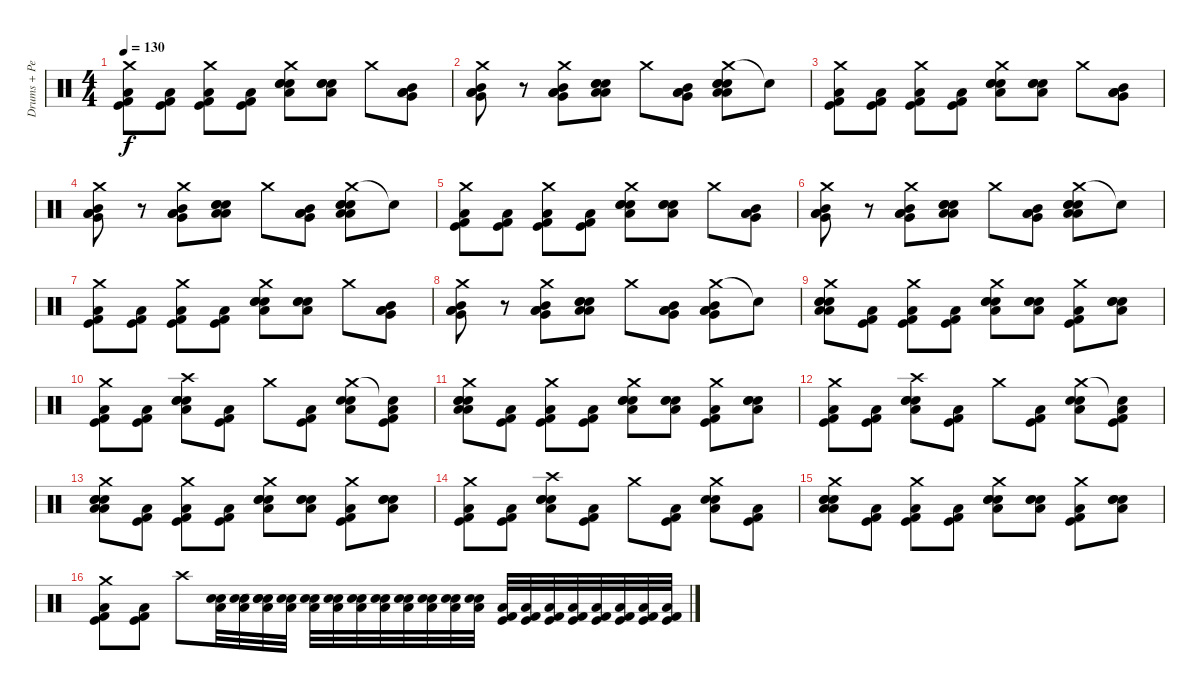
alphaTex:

\track ("Drums + Percussions (Dave Chavarri)" "Drums + Pe") {instrument percussion}
\staff {score}
\articulation defaults
\ts (4 4)
\tempo 130
\clef neutral
\ks c
("Crash medium (hit)" "Low Floor Tom (hit)" "Kick (hit)" "Kick (hit) 2").8{dy f} ("Low Floor Tom (hit)" "Kick (hit)" "Kick (hit) 2").8 ("Crash medium (hit)" "Low Floor Tom (hit)" "Kick (hit)" "Kick (hit) 2").8 ("Low Floor Tom (hit)" "Kick (hit)" "Kick (hit) 2").8 ("Crash medium (hit)" "Low Floor Tom (hit)" "Electric Snare (hit)" "Electric Snare (hit)" "Snare (hit) 2").8 ("Low Floor Tom (hit)" "Electric Snare (hit)" "Electric Snare (hit)" "Snare (hit) 2").8 "Crash medium (hit)".8 ("Mid Tom (hit)" "Low Tom (hit)" "Very Low Tom (hit)" "Low Floor Tom (hit)").8 |
("Crash medium (hit)" "Mid Tom (hit)" "Low Tom (hit)" "Very Low Tom (hit)" "Low Floor Tom (hit)").8 r.8 ("Crash medium (hit)" "Mid Tom (hit)" "Low Tom (hit)" "Very Low Tom (hit)" "Low Floor Tom (hit)").8 ("Low Tom (hit)" "Low Floor Tom (hit)" "Electric Snare (hit)" "Electric Snare (hit)" "Snare (hit) 2").8 "Crash medium (hit)".8 ("Mid Tom (hit)" "Low Floor Tom (hit)" "Very Low Tom (hit)" "Low Floor Tom (hit)").8 ("Crash medium (hit)" "Low Tom (hit)" "Low Floor Tom (hit)" "Electric Snare (hit)" "Electric Snare (hit)" "Snare (hit) 2").8 "Snare (hit)"{t}.8 |
("Crash medium (hit)" "Low Floor Tom (hit)" "Kick (hit)" "Kick (hit) 2").8 ("Low Floor Tom (hit)" "Kick (hit)" "Kick (hit) 2").8 ("Crash medium (hit)" "Low Floor Tom (hit)" "Kick (hit)" "Kick (hit) 2").8 ("Low Floor Tom (hit)" "Kick (hit)" "Kick (hit) 2").8 ("Crash medium (hit)" "Low Floor Tom (hit)" "Electric Snare (hit)" "Electric Snare (hit)" "Snare (hit) 2").8 ("Low Floor Tom (hit)" "Electric Snare (hit)" "Electric Snare (hit)" "Snare (hit) 2").8 "Crash medium (hit)".8 ("Mid Tom (hit)" "Low Tom (hit)" "Very Low Tom (hit)" "Low Floor Tom (hit)").8 |
("Crash medium (hit)" "Mid Tom (hit)" "Low Tom (hit)" "Very Low Tom (hit)" "Low Floor Tom (hit)").8 r.8 ("Crash medium (hit)" "Mid Tom (hit)" "Low Tom (hit)" "Very Low Tom (hit)" "Low Floor Tom (hit)").8 ("Low Tom (hit)" "Low Floor Tom (hit)" "Electric Snare (hit)" "Electric Snare (hit)" "Snare (hit) 2").8 "Crash medium (hit)".8 ("Mid Tom (hit)" "Low Floor Tom (hit)" "Very Low Tom (hit)" "Low Floor Tom (hit)").8 ("Crash medium (hit)" "Low Tom (hit)" "Low Floor Tom (hit)" "Electric Snare (hit)" "Electric Snare (hit)" "Snare (hit) 2").8 "Snare (hit)"{t}.8 |
("Crash medium (hit)" "Low Floor Tom (hit)" "Kick (hit)" "Kick (hit) 2").8 ("Low Floor Tom (hit)" "Kick (hit)" "Kick (hit) 2").8 ("Crash medium (hit)" "Low Floor Tom (hit)" "Kick (hit)" "Kick (hit) 2").8 ("Low Floor Tom (hit)" "Kick (hit)" "Kick (hit) 2").8 ("Crash medium (hit)" "Low Floor Tom (hit)" "Electric Snare (hit)" "Electric Snare (hit)" "Snare (hit) 2").8 ("Low Floor Tom (hit)" "Electric Snare (hit)" "Electric Snare (hit)" "Snare (hit) 2").8 "Crash medium (hit)".8 ("Mid Tom (hit)" "Low Tom (hit)" "Very Low Tom (hit)" "Low Floor Tom (hit)").8 |
("Crash medium (hit)" "Mid Tom (hit)" "Low Tom (hit)" "Very Low Tom (hit)" "Low Floor Tom (hit)").8 r.8 ("Crash medium (hit)" "Mid Tom (hit)" "Low Tom (hit)" "Very Low Tom (hit)" "Low Floor Tom (hit)").8 ("Low Tom (hit)" "Low Floor Tom (hit)" "Electric Snare (hit)" "Electric Snare (hit)" "Snare (hit) 2").8 "Crash medium (hit)".8 ("Mid Tom (hit)" "Low Floor Tom (hit)" "Very Low Tom (hit)" "Low Floor Tom (hit)").8 ("Crash medium (hit)" "Low Tom (hit)" "Low Floor Tom (hit)" "Electric Snare (hit)" "Electric Snare (hit)" "Snare (hit) 2").8 "Snare (hit)"{t}.8 |
("Crash medium (hit)" "Low Floor Tom (hit)" "Kick (hit)" "Kick (hit) 2").8 ("Low Floor Tom (hit)" "Kick (hit)" "Kick (hit) 2").8 ("Crash medium (hit)" "Low Floor Tom (hit)" "Kick (hit)" "Kick (hit) 2").8 ("Low Floor Tom (hit)" "Kick (hit)" "Kick (hit) 2").8 ("Crash medium (hit)" "Low Floor Tom (hit)" "Electric Snare (hit)" "Electric Snare (hit)" "Snare (hit) 2").8 ("Low Floor Tom (hit)" "Electric Snare (hit)" "Electric Snare (hit)" "Snare (hit) 2").8 "Crash medium (hit)".8 ("Mid Tom (hit)" "Low Tom (hit)" "Very Low Tom (hit)" "Low Floor Tom (hit)").8 |
("Crash medium (hit)" "Mid Tom (hit)" "Low Tom (hit)" "Very Low Tom (hit)" "Low Floor Tom (hit)").8 r.8 ("Crash medium (hit)" "Mid Tom (hit)" "Low Tom (hit)" "Very Low Tom (hit)" "Low Floor Tom (hit)").8 ("Low Tom (hit)" "Low Floor Tom (hit)" "Electric Snare (hit)" "Electric Snare (hit)" "Snare (hit) 2").8 "Crash medium (hit)".8 ("Mid Tom (hit)" "Low Floor Tom (hit)" "Very Low Tom (hit)" "Low Floor Tom (hit)").8 ("Crash medium (hit)" "Mid Tom (hit)" "Low Floor Tom (hit)" "Very Low Tom (hit)" "Low Floor Tom (hit)").8 "Snare (hit)"{t}.8 |
("Crash medium (hit)" "Low Tom (hit)" "Low Floor Tom (hit)" "Electric Snare (hit)" "Snare (hit) 2" "Electric Snare (hit)").8 ("Low Floor Tom (hit)" "Kick (hit)" "Kick (hit) 2").8 ("Crash medium (hit)" "Low Floor Tom (hit)" "Kick (hit)" "Kick (hit) 2").8 ("Low Floor Tom (hit)" "Kick (hit)" "Kick (hit) 2").8 ("Crash medium (hit)" "Low Floor Tom (hit)" "Electric Snare (hit)" "Electric Snare (hit)" "Snare (hit) 2").8 ("Low Floor Tom (hit)" "Electric Snare (hit)" "Electric Snare (hit)" "Snare (hit) 2").8 ("Crash medium (hit)" "Low Floor Tom (hit)" "Kick (hit)" "Kick (hit) 2").8 ("Low Floor Tom (hit)" "Electric Snare (hit)" "Electric Snare (hit)" "Snare (hit) 2").8 |
("Crash medium (hit)" "Low Floor Tom (hit)" "Kick (hit)" "Kick (hit) 2").8 ("Low Floor Tom (hit)" "Kick (hit)" "Kick (hit) 2").8 ("Crash high (hit)" "Low Floor Tom (hit)" "Electric Snare (hit)" "Electric Snare (hit)" "Snare (hit) 2").8 ("Low Floor Tom (hit)" "Kick (hit)" "Kick (hit) 2").8 "Crash medium (hit)".8 ("Low Floor Tom (hit)" "Kick (hit)" "Kick (hit) 2").8 ("Crash medium (hit)" "Low Floor Tom (hit)" "Electric Snare (hit)" "Electric Snare (hit)").8 ("Snare (hit)"{t} "Low Floor Tom (hit)" "Kick (hit)" "Kick (hit) 2").8 |
("Crash medium (hit)" "Low Tom (hit)" "Low Floor Tom (hit)" "Electric Snare (hit)" "Snare (hit) 2" "Electric Snare (hit)").8 ("Low Floor Tom (hit)" "Kick (hit)" "Kick (hit) 2").8 ("Crash medium (hit)" "Low Floor Tom (hit)" "Kick (hit)" "Kick (hit) 2").8 ("Low Floor Tom (hit)" "Kick (hit)" "Kick (hit) 2").8 ("Crash medium (hit)" "Low Floor Tom (hit)" "Electric Snare (hit)" "Electric Snare (hit)" "Snare (hit) 2").8 ("Low Floor Tom (hit)" "Electric Snare (hit)" "Electric Snare (hit)" "Snare (hit) 2").8 ("Crash medium (hit)" "Low Floor Tom (hit)" "Kick (hit)" "Kick (hit) 2").8 ("Low Floor Tom (hit)" "Electric Snare (hit)" "Electric Snare (hit)" "Snare (hit) 2").8 |
("Crash medium (hit)" "Low Floor Tom (hit)" "Kick (hit)" "Kick (hit) 2").8 ("Low Floor Tom (hit)" "Kick (hit)" "Kick (hit) 2").8 ("Crash high (hit)" "Low Floor Tom (hit)" "Electric Snare (hit)" "Electric Snare (hit)" "Snare (hit) 2").8 ("Low Floor Tom (hit)" "Kick (hit)" "Kick (hit) 2").8 "Crash medium (hit)".8 ("Low Floor Tom (hit)" "Kick (hit)" "Kick (hit) 2").8 ("Crash medium (hit)" "Low Floor Tom (hit)" "Electric Snare (hit)" "Electric Snare (hit)").8 ("Snare (hit)"{t} "Low Floor Tom (hit)" "Kick (hit)" "Kick (hit) 2").8 |
("Crash medium (hit)" "Low Tom (hit)" "Low Floor Tom (hit)" "Electric Snare (hit)" "Snare (hit) 2" "Electric Snare (hit)").8 ("Low Floor Tom (hit)" "Kick (hit)" "Kick (hit) 2").8 ("Crash medium (hit)" "Low Floor Tom (hit)" "Kick (hit)" "Kick (hit) 2").8 ("Low Floor Tom (hit)" "Kick (hit)" "Kick (hit) 2").8 ("Crash medium (hit)" "Low Floor Tom (hit)" "Electric Snare (hit)" "Electric Snare (hit)" "Snare (hit) 2").8 ("Low Floor Tom (hit)" "Electric Snare (hit)" "Electric Snare (hit)" "Snare (hit) 2").8 ("Crash medium (hit)" "Low Floor Tom (hit)" "Kick (hit)" "Kick (hit) 2").8 ("Low Floor Tom (hit)" "Electric Snare (hit)" "Electric Snare (hit)" "Snare (hit) 2").8 |
("Crash medium (hit)" "Low Floor Tom (hit)" "Kick (hit)" "Kick (hit) 2").8 ("Low Floor Tom (hit)" "Kick (hit)" "Kick (hit) 2").8 ("Crash high (hit)" "Low Floor Tom (hit)" "Electric Snare (hit)" "Electric Snare (hit)" "Snare (hit) 2").8 ("Low Floor Tom (hit)" "Kick (hit)" "Kick (hit) 2").8 "Crash medium (hit)".8 ("Low Floor Tom (hit)" "Kick (hit)" "Kick (hit) 2").8 ("Crash medium (hit)" "Low Floor Tom (hit)" "Electric Snare (hit)" "Electric Snare (hit)").8 ("Low Floor Tom (hit)" "Kick (hit)" "Kick (hit) 2").8 |
("Crash medium (hit)" "Low Tom (hit)" "Low Floor Tom (hit)" "Electric Snare (hit)" "Snare (hit) 2" "Electric Snare (hit)").8 ("Low Floor Tom (hit)" "Kick (hit)" "Kick (hit) 2").8 ("Crash medium (hit)" "Low Floor Tom (hit)" "Kick (hit)" "Kick (hit) 2").8 ("Low Floor Tom (hit)" "Kick (hit)" "Kick (hit) 2").8 ("Crash medium (hit)" "Low Floor Tom (hit)" "Electric Snare (hit)" "Electric Snare (hit)" "Snare (hit) 2").8 ("Low Floor Tom (hit)" "Electric Snare (hit)" "Electric Snare (hit)" "Snare (hit) 2").8 ("Crash medium (hit)" "Low Floor Tom (hit)" "Kick (hit)" "Kick (hit) 2").8 ("Low Floor Tom (hit)" "Electric Snare (hit)" "Electric Snare (hit)" "Snare (hit) 2").8 |
("Crash medium (hit)" "Low Floor Tom (hit)" "Kick (hit)" "Kick (hit) 2").8 ("Low Floor Tom (hit)" "Kick (hit)" "Kick (hit) 2").8 "Crash high (hit)".8 ("Low Floor Tom (hit)" "Electric Snare (hit)" "Snare (hit) 2").32 ("Low Floor Tom (hit)" "Electric Snare (hit)" "Snare (hit) 2").32 ("Snare (hit)"{t} "Low Floor Tom (hit)" "Electric Snare (hit)" "Snare (hit) 2").32 ("Low Floor Tom (hit)" "Electric Snare (hit)" "Snare (hit) 2").32 ("Low Floor Tom (hit)" "Electric Snare (hit)" "Snare (hit) 2").32 ("Low Floor Tom (hit)" "Electric Snare (hit)" "Snare (hit) 2").32 ("Low Floor Tom (hit)" "Electric Snare (hit)" "Snare (hit) 2").32 ("Low Floor Tom (hit)" "Electric Snare (hit)" "Snare (hit) 2").32 ("Low Floor Tom (hit)" "Electric Snare (hit)" "Snare (hit) 2").32 ("Low Floor Tom (hit)" "Electric Snare (hit)" "Electric Snare (hit)").32 ("Low Floor Tom (hit)" "Electric Snare (hit)" "Electric Snare (hit)").32 ("Low Floor Tom (hit)" "Electric Snare (hit)" "Electric Snare (hit)").32 ("Low Floor Tom (hit)" "Kick (hit) 2" "Kick (hit)").32 ("Low Floor Tom (hit)" "Kick (hit) 2" "Kick (hit)").32 ("Low Floor Tom (hit)" "Kick (hit) 2" "Kick (hit)").32 ("Low Floor Tom (hit)" "Kick (hit) 2" "Kick (hit)").32 ("Low Floor Tom (hit)" "Kick (hit) 2" "Kick (hit)").32 ("Low Floor Tom (hit)" "Kick (hit) 2" "Kick (hit)").32 ("Low Floor Tom (hit)" "Kick (hit) 2" "Kick (hit)").32 ("Low Floor Tom (hit)" "Kick (hit) 2" "Kick (hit)").32
